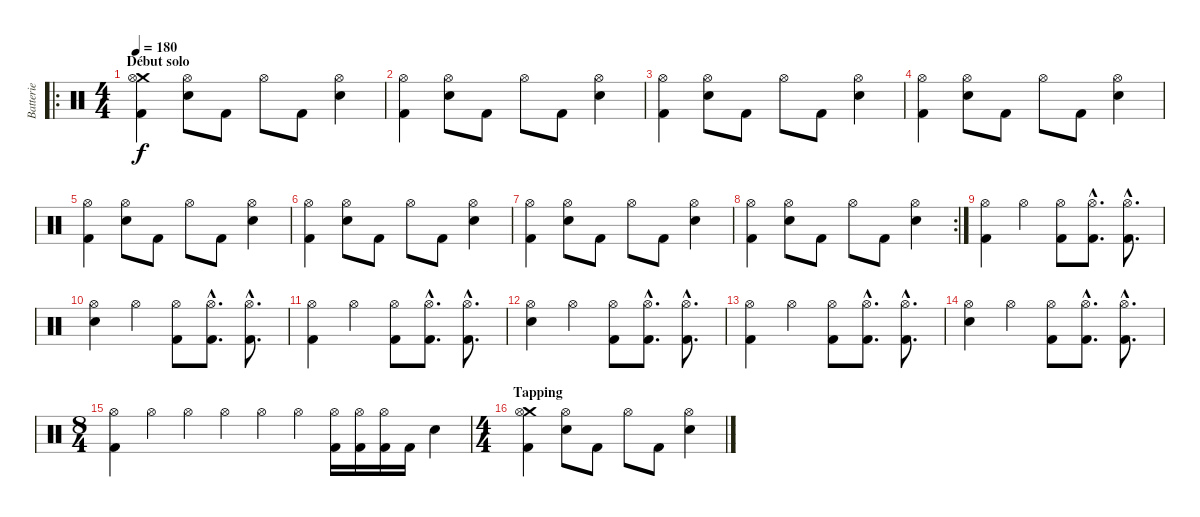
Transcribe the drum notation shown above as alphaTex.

\track ("Batterie" "Batterie") {instrument percussion}
\staff {score}
\articulation defaults
\ro
\ts (4 4)
\section ("" "Début solo")
\tempo 180
\clef neutral
\ks c
("Crash medium (hit)" "Hi-Hat (open)" "Kick (hit) 2").4{dy f} ("Hi-Hat (open)" "Electric Snare (hit)").8 "Kick (hit) 2".8 "Hi-Hat (open)".8 "Kick (hit) 2".8 ("Hi-Hat (open)" "Electric Snare (hit)").4 |
("Hi-Hat (open)" "Kick (hit) 2").4 ("Hi-Hat (open)" "Electric Snare (hit)").8 "Kick (hit) 2".8 "Hi-Hat (open)".8 "Kick (hit) 2".8 ("Hi-Hat (open)" "Electric Snare (hit)").4 |
("Hi-Hat (open)" "Kick (hit) 2").4 ("Hi-Hat (open)" "Electric Snare (hit)").8 "Kick (hit) 2".8 "Hi-Hat (open)".8 "Kick (hit) 2".8 ("Hi-Hat (open)" "Electric Snare (hit)").4 |
("Hi-Hat (open)" "Kick (hit) 2").4 ("Hi-Hat (open)" "Electric Snare (hit)").8 "Kick (hit) 2".8 "Hi-Hat (open)".8 "Kick (hit) 2".8 ("Hi-Hat (open)" "Electric Snare (hit)").4 |
("Hi-Hat (open)" "Kick (hit) 2").4 ("Hi-Hat (open)" "Electric Snare (hit)").8 "Kick (hit) 2".8 "Hi-Hat (open)".8 "Kick (hit) 2".8 ("Hi-Hat (open)" "Electric Snare (hit)").4 |
("Hi-Hat (open)" "Kick (hit) 2").4 ("Hi-Hat (open)" "Electric Snare (hit)").8 "Kick (hit) 2".8 "Hi-Hat (open)".8 "Kick (hit) 2".8 ("Hi-Hat (open)" "Electric Snare (hit)").4 |
("Hi-Hat (open)" "Kick (hit) 2").4 ("Hi-Hat (open)" "Electric Snare (hit)").8 "Kick (hit) 2".8 "Hi-Hat (open)".8 "Kick (hit) 2".8 ("Hi-Hat (open)" "Electric Snare (hit)").4 |
\rc 2
("Hi-Hat (open)" "Kick (hit) 2").4 ("Hi-Hat (open)" "Electric Snare (hit)").8 "Kick (hit) 2".8 "Hi-Hat (open)".8 "Kick (hit) 2".8 ("Hi-Hat (open)" "Electric Snare (hit)").4 |
("Hi-Hat (open)" "Kick (hit) 2").4 "Hi-Hat (open)".4 ("Hi-Hat (open)" "Kick (hit) 2").8 ("Hi-Hat (open)"{hac} "Kick (hit) 2"{hac}).8{d} ("Hi-Hat (open)"{hac} "Kick (hit) 2"{hac}).8{d} |
("Hi-Hat (open)" "Electric Snare (hit)").4 "Hi-Hat (open)".4 ("Hi-Hat (open)" "Kick (hit) 2").8 ("Hi-Hat (open)"{hac} "Kick (hit) 2"{hac}).8{d} ("Hi-Hat (open)"{hac} "Kick (hit) 2"{hac}).8{d} |
("Hi-Hat (open)" "Kick (hit) 2").4 "Hi-Hat (open)".4 ("Hi-Hat (open)" "Kick (hit) 2").8 ("Hi-Hat (open)"{hac} "Kick (hit) 2"{hac}).8{d} ("Hi-Hat (open)"{hac} "Kick (hit) 2"{hac}).8{d} |
("Hi-Hat (open)" "Electric Snare (hit)").4 "Hi-Hat (open)".4 ("Hi-Hat (open)" "Kick (hit) 2").8 ("Hi-Hat (open)"{hac} "Kick (hit) 2"{hac}).8{d} ("Hi-Hat (open)"{hac} "Kick (hit) 2"{hac}).8{d} |
("Hi-Hat (open)" "Kick (hit) 2").4 "Hi-Hat (open)".4 ("Hi-Hat (open)" "Kick (hit) 2").8 ("Hi-Hat (open)"{hac} "Kick (hit) 2"{hac}).8{d} ("Hi-Hat (open)"{hac} "Kick (hit) 2"{hac}).8{d} |
("Hi-Hat (open)" "Electric Snare (hit)").4 "Hi-Hat (open)".4 ("Hi-Hat (open)" "Kick (hit) 2").8 ("Hi-Hat (open)"{hac} "Kick (hit) 2"{hac}).8{d} ("Hi-Hat (open)"{hac} "Kick (hit) 2"{hac}).8{d} |
\ts (8 4)
("Hi-Hat (open)" "Kick (hit) 2").4 "Hi-Hat (open)".4 "Hi-Hat (open)".4 "Hi-Hat (open)".4 "Hi-Hat (open)".4 "Hi-Hat (open)".4 ("Hi-Hat (open)" "Kick (hit) 2").16 ("Hi-Hat (open)" "Kick (hit) 2").16 ("Hi-Hat (open)" "Kick (hit) 2").16 "Kick (hit) 2".16 "Electric Snare (hit)".4 |
\ts (4 4)
\section ("" "Tapping")
("Crash medium (hit)" "Hi-Hat (open)" "Kick (hit) 2").4 ("Hi-Hat (open)" "Electric Snare (hit)").8 "Kick (hit) 2".8 "Hi-Hat (open)".8 "Kick (hit) 2".8 ("Hi-Hat (open)" "Electric Snare (hit)").4
